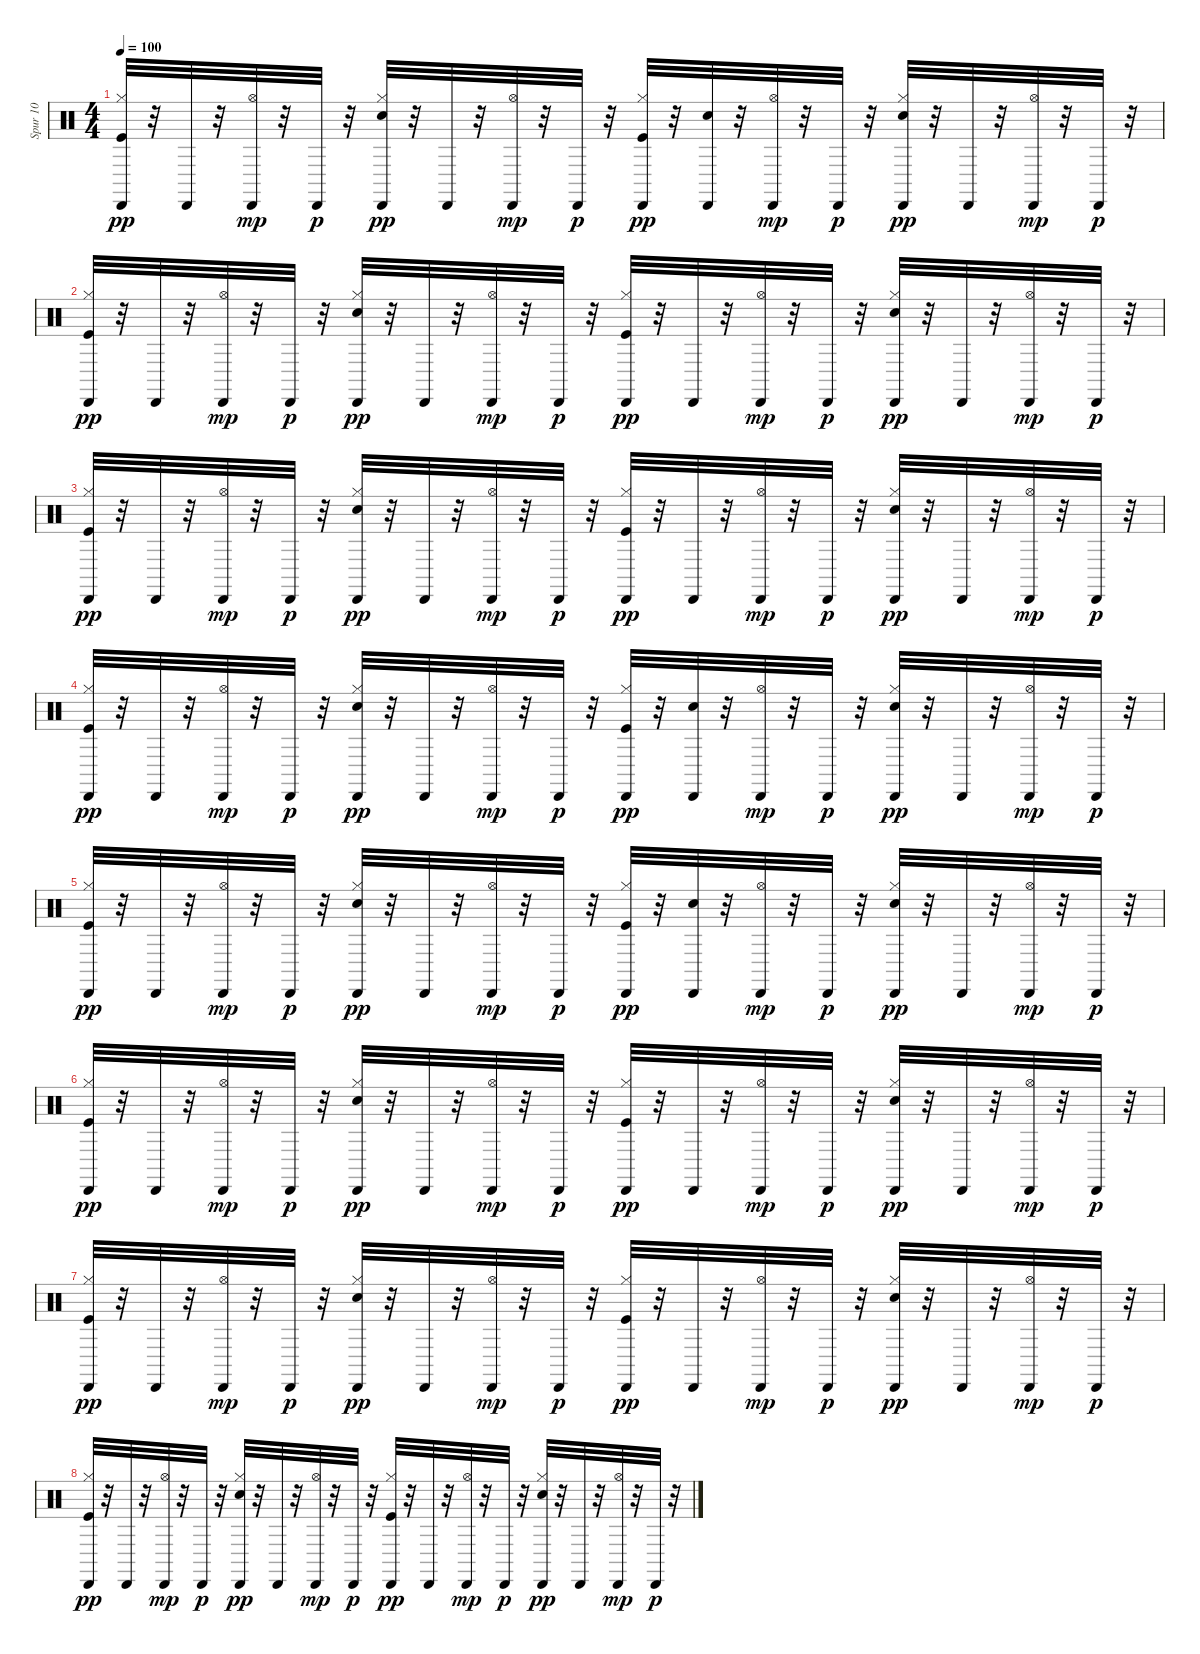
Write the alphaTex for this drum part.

\track ("Spur 10" "Spur 10") {instrument percussion}
\staff {score}
\articulation defaults
\ts (4 4)
\tempo 100
\clef neutral
\ks c
("Kick (hit)" "Hi-Hat (closed)" "Cabasa (hit)").32{dy pp} r.32 "Cabasa (hit)".32 r.32 ("Hi-Hat (open)" "Cabasa (hit)").32{dy mp} r.32 "Cabasa (hit)".32{dy p} r.32 ("Electric Snare (hit)" "Hi-Hat (closed)" "Cabasa (hit)").32{dy pp} r.32 "Cabasa (hit)".32 r.32 ("Hi-Hat (open)" "Cabasa (hit)").32{dy mp} r.32 "Cabasa (hit)".32{dy p} r.32 ("Kick (hit)" "Hi-Hat (closed)" "Cabasa (hit)").32{dy pp} r.32 ("Electric Snare (hit)" "Cabasa (hit)").32 r.32 ("Hi-Hat (open)" "Cabasa (hit)").32{dy mp} r.32 "Cabasa (hit)".32{dy p} r.32 ("Electric Snare (hit)" "Hi-Hat (closed)" "Cabasa (hit)").32{dy pp} r.32 "Cabasa (hit)".32 r.32 ("Hi-Hat (open)" "Cabasa (hit)").32{dy mp} r.32 "Cabasa (hit)".32{dy p} r.32 |
("Kick (hit)" "Hi-Hat (closed)" "Cabasa (hit)").32{dy pp} r.32 "Cabasa (hit)".32 r.32 ("Hi-Hat (open)" "Cabasa (hit)").32{dy mp} r.32 "Cabasa (hit)".32{dy p} r.32 ("Electric Snare (hit)" "Hi-Hat (closed)" "Cabasa (hit)").32{dy pp} r.32 "Cabasa (hit)".32 r.32 ("Hi-Hat (open)" "Cabasa (hit)").32{dy mp} r.32 "Cabasa (hit)".32{dy p} r.32 ("Kick (hit)" "Hi-Hat (closed)" "Cabasa (hit)").32{dy pp} r.32 "Cabasa (hit)".32 r.32 ("Hi-Hat (open)" "Cabasa (hit)").32{dy mp} r.32 "Cabasa (hit)".32{dy p} r.32 ("Electric Snare (hit)" "Hi-Hat (closed)" "Cabasa (hit)").32{dy pp} r.32 "Cabasa (hit)".32 r.32 ("Hi-Hat (open)" "Cabasa (hit)").32{dy mp} r.32 "Cabasa (hit)".32{dy p} r.32 |
("Kick (hit)" "Hi-Hat (closed)" "Cabasa (hit)").32{dy pp} r.32 "Cabasa (hit)".32 r.32 ("Hi-Hat (open)" "Cabasa (hit)").32{dy mp} r.32 "Cabasa (hit)".32{dy p} r.32 ("Electric Snare (hit)" "Hi-Hat (closed)" "Cabasa (hit)").32{dy pp} r.32 "Cabasa (hit)".32 r.32 ("Hi-Hat (open)" "Cabasa (hit)").32{dy mp} r.32 "Cabasa (hit)".32{dy p} r.32 ("Kick (hit)" "Hi-Hat (closed)" "Cabasa (hit)").32{dy pp} r.32 "Cabasa (hit)".32 r.32 ("Hi-Hat (open)" "Cabasa (hit)").32{dy mp} r.32 "Cabasa (hit)".32{dy p} r.32 ("Electric Snare (hit)" "Hi-Hat (closed)" "Cabasa (hit)").32{dy pp} r.32 "Cabasa (hit)".32 r.32 ("Hi-Hat (open)" "Cabasa (hit)").32{dy mp} r.32 "Cabasa (hit)".32{dy p} r.32 |
("Kick (hit)" "Hi-Hat (closed)" "Cabasa (hit)").32{dy pp} r.32 "Cabasa (hit)".32 r.32 ("Hi-Hat (open)" "Cabasa (hit)").32{dy mp} r.32 "Cabasa (hit)".32{dy p} r.32 ("Electric Snare (hit)" "Hi-Hat (closed)" "Cabasa (hit)").32{dy pp} r.32 "Cabasa (hit)".32 r.32 ("Hi-Hat (open)" "Cabasa (hit)").32{dy mp} r.32 "Cabasa (hit)".32{dy p} r.32 ("Kick (hit)" "Hi-Hat (closed)" "Cabasa (hit)").32{dy pp} r.32 ("Electric Snare (hit)" "Cabasa (hit)").32 r.32 ("Hi-Hat (open)" "Cabasa (hit)").32{dy mp} r.32 "Cabasa (hit)".32{dy p} r.32 ("Electric Snare (hit)" "Hi-Hat (closed)" "Cabasa (hit)").32{dy pp} r.32 "Cabasa (hit)".32 r.32 ("Hi-Hat (open)" "Cabasa (hit)").32{dy mp} r.32 "Cabasa (hit)".32{dy p} r.32 |
("Kick (hit)" "Hi-Hat (closed)" "Cabasa (hit)").32{dy pp} r.32 "Cabasa (hit)".32 r.32 ("Hi-Hat (open)" "Cabasa (hit)").32{dy mp} r.32 "Cabasa (hit)".32{dy p} r.32 ("Electric Snare (hit)" "Hi-Hat (closed)" "Cabasa (hit)").32{dy pp} r.32 "Cabasa (hit)".32 r.32 ("Hi-Hat (open)" "Cabasa (hit)").32{dy mp} r.32 "Cabasa (hit)".32{dy p} r.32 ("Kick (hit)" "Hi-Hat (closed)" "Cabasa (hit)").32{dy pp} r.32 ("Electric Snare (hit)" "Cabasa (hit)").32 r.32 ("Hi-Hat (open)" "Cabasa (hit)").32{dy mp} r.32 "Cabasa (hit)".32{dy p} r.32 ("Electric Snare (hit)" "Hi-Hat (closed)" "Cabasa (hit)").32{dy pp} r.32 "Cabasa (hit)".32 r.32 ("Hi-Hat (open)" "Cabasa (hit)").32{dy mp} r.32 "Cabasa (hit)".32{dy p} r.32 |
("Kick (hit)" "Hi-Hat (closed)" "Cabasa (hit)").32{dy pp} r.32 "Cabasa (hit)".32 r.32 ("Hi-Hat (open)" "Cabasa (hit)").32{dy mp} r.32 "Cabasa (hit)".32{dy p} r.32 ("Electric Snare (hit)" "Hi-Hat (closed)" "Cabasa (hit)").32{dy pp} r.32 "Cabasa (hit)".32 r.32 ("Hi-Hat (open)" "Cabasa (hit)").32{dy mp} r.32 "Cabasa (hit)".32{dy p} r.32 ("Kick (hit)" "Hi-Hat (closed)" "Cabasa (hit)").32{dy pp} r.32 "Cabasa (hit)".32 r.32 ("Hi-Hat (open)" "Cabasa (hit)").32{dy mp} r.32 "Cabasa (hit)".32{dy p} r.32 ("Electric Snare (hit)" "Hi-Hat (closed)" "Cabasa (hit)").32{dy pp} r.32 "Cabasa (hit)".32 r.32 ("Hi-Hat (open)" "Cabasa (hit)").32{dy mp} r.32 "Cabasa (hit)".32{dy p} r.32 |
("Kick (hit)" "Hi-Hat (closed)" "Cabasa (hit)").32{dy pp} r.32 "Cabasa (hit)".32 r.32 ("Hi-Hat (open)" "Cabasa (hit)").32{dy mp} r.32 "Cabasa (hit)".32{dy p} r.32 ("Electric Snare (hit)" "Hi-Hat (closed)" "Cabasa (hit)").32{dy pp} r.32 "Cabasa (hit)".32 r.32 ("Hi-Hat (open)" "Cabasa (hit)").32{dy mp} r.32 "Cabasa (hit)".32{dy p} r.32 ("Kick (hit)" "Hi-Hat (closed)" "Cabasa (hit)").32{dy pp} r.32 "Cabasa (hit)".32 r.32 ("Hi-Hat (open)" "Cabasa (hit)").32{dy mp} r.32 "Cabasa (hit)".32{dy p} r.32 ("Electric Snare (hit)" "Hi-Hat (closed)" "Cabasa (hit)").32{dy pp} r.32 "Cabasa (hit)".32 r.32 ("Hi-Hat (open)" "Cabasa (hit)").32{dy mp} r.32 "Cabasa (hit)".32{dy p} r.32 |
("Kick (hit)" "Hi-Hat (closed)" "Cabasa (hit)").32{dy pp} r.32 "Cabasa (hit)".32 r.32 ("Hi-Hat (open)" "Cabasa (hit)").32{dy mp} r.32 "Cabasa (hit)".32{dy p} r.32 ("Electric Snare (hit)" "Hi-Hat (closed)" "Cabasa (hit)").32{dy pp} r.32 "Cabasa (hit)".32 r.32 ("Hi-Hat (open)" "Cabasa (hit)").32{dy mp} r.32 "Cabasa (hit)".32{dy p} r.32 ("Kick (hit)" "Hi-Hat (closed)" "Cabasa (hit)").32{dy pp} r.32 "Cabasa (hit)".32 r.32 ("Hi-Hat (open)" "Cabasa (hit)").32{dy mp} r.32 "Cabasa (hit)".32{dy p} r.32 ("Electric Snare (hit)" "Hi-Hat (closed)" "Cabasa (hit)").32{dy pp} r.32 "Cabasa (hit)".32 r.32 ("Hi-Hat (open)" "Cabasa (hit)").32{dy mp} r.32 "Cabasa (hit)".32{dy p} r.32
